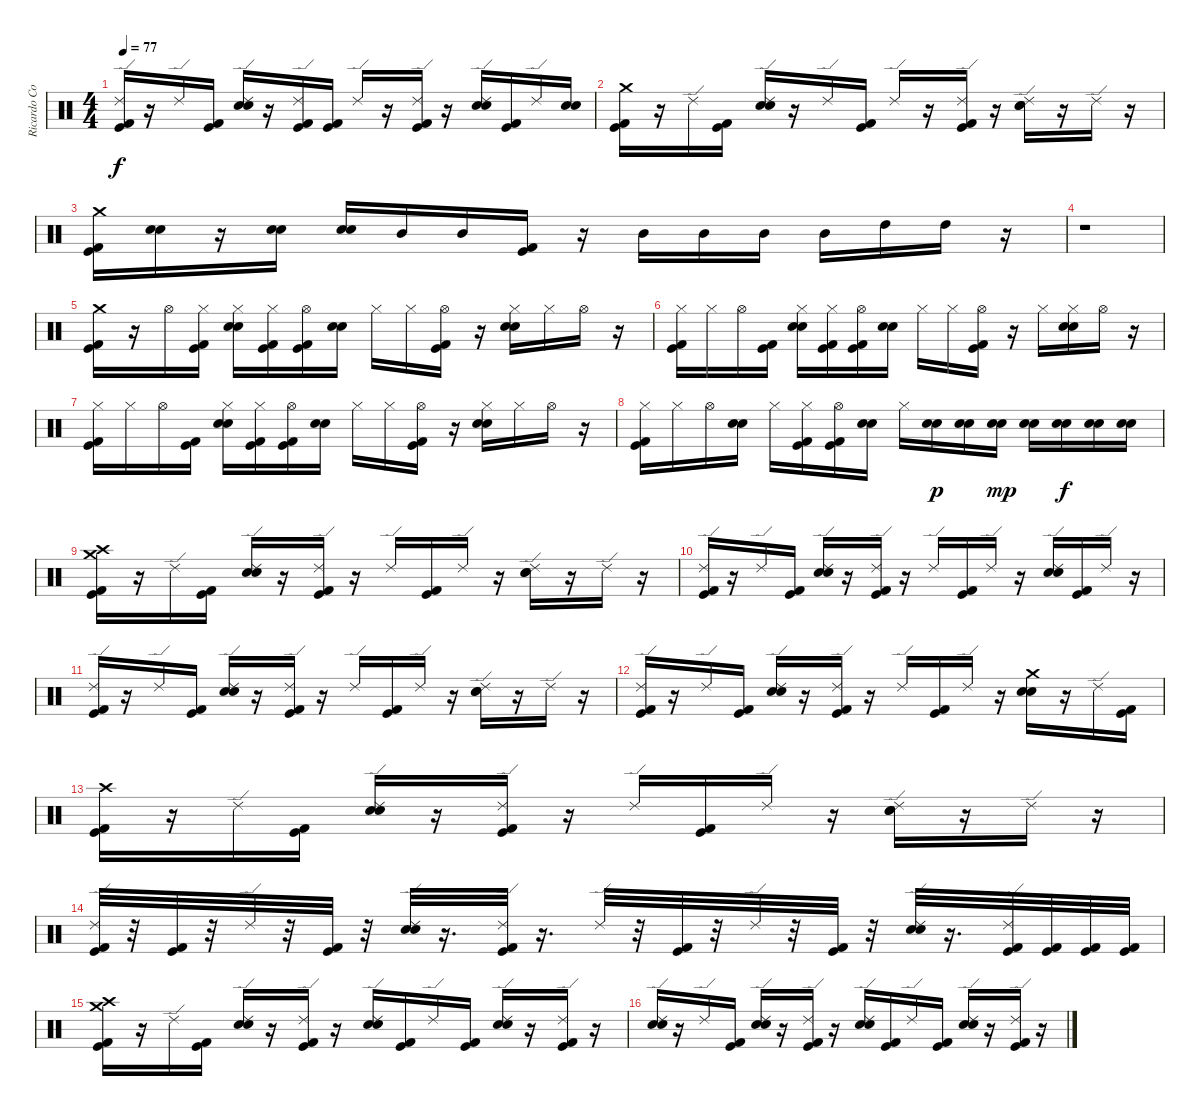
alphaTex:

\track ("Ricardo Confessori" "Ricardo Co") {instrument percussion}
\staff {score}
\articulation defaults
\ts (4 4)
\tempo 77
\clef neutral
\ks c
("Ride (edge) 2" "Kick (hit) 2" "Kick (hit)").16{dy f} r.16 "Ride (edge) 2".16 ("Kick (hit) 2" "Kick (hit)").16 ("Electric Snare (hit)" "Snare (hit) 2" "Ride (edge) 2").16 r.16 ("Ride (edge) 2" "Kick (hit) 2" "Kick (hit)").16 ("Kick (hit) 2" "Kick (hit)").16 "Ride (edge) 2".16 r.16 ("Kick (hit) 2" "Ride (edge) 2" "Kick (hit)").16 r.16 ("Electric Snare (hit)" "Snare (hit) 2" "Ride (edge) 2").16 ("Kick (hit) 2" "Kick (hit)").16 "Ride (edge) 2".16 ("Electric Snare (hit)" "Snare (hit) 2").16 |
("Crash medium (hit)" "Kick (hit) 2" "Kick (hit)").16 r.16 "Ride (edge) 2".16 ("Kick (hit) 2" "Kick (hit)").16 ("Electric Snare (hit)" "Snare (hit) 2" "Ride (edge) 2").16 r.16 "Ride (edge) 2".16 ("Kick (hit) 2" "Kick (hit)").16 "Ride (edge) 2".16 r.16 ("Ride (edge) 2" "Kick (hit) 2" "Kick (hit)").16 r.16 ("Electric Snare (hit)" "Snare (hit) 2" "Ride (edge) 2").16 r.16 "Ride (edge) 2".16 r.16 |
("Crash medium (hit)" "Kick (hit) 2" "Kick (hit)").16 ("Snare (hit) 2" "Electric Snare (hit)").16 r.16 ("Electric Snare (hit)" "Snare (hit) 2").16 ("Snare (hit) 2" "Electric Snare (hit)").16 "Mid Tom (hit)".16 "Mid Tom (hit)".16 ("Kick (hit) 2" "Kick (hit)").16 r.16 "Mid Tom (hit)".16 "Mid Tom (hit)".16 "Mid Tom (hit)".16 "Mid Tom (hit)".16 "High Tom (hit)".16 "High Tom (hit)".16 r.16 |
r.1 |
("Crash medium (hit)" "Kick (hit) 2" "Kick (hit)").16 r.16 "Hi-Hat (open)".16 ("Hi-Hat (closed)" "Kick (hit) 2" "Kick (hit)").16 ("Hi-Hat (closed)" "Electric Snare (hit)" "Snare (hit) 2").16 ("Hi-Hat (closed)" "Kick (hit) 2" "Kick (hit)").16 ("Hi-Hat (open)" "Kick (hit) 2" "Kick (hit)").16 ("Electric Snare (hit)" "Snare (hit) 2").16 "Hi-Hat (closed)".16 "Hi-Hat (closed)".16 ("Kick (hit) 2" "Kick (hit)" "Hi-Hat (open)").16 r.16 ("Electric Snare (hit)" "Snare (hit) 2" "Hi-Hat (closed)").16 "Hi-Hat (closed)".16 "Hi-Hat (open)".16 r.16 |
("Hi-Hat (closed)" "Kick (hit) 2" "Kick (hit)").16 "Hi-Hat (closed)".16 "Hi-Hat (open)".16 ("Kick (hit) 2" "Kick (hit)").16 ("Electric Snare (hit)" "Snare (hit) 2" "Hi-Hat (closed)").16 ("Kick (hit) 2" "Kick (hit)" "Hi-Hat (closed)").16 ("Kick (hit) 2" "Kick (hit)" "Hi-Hat (open)").16 ("Electric Snare (hit)" "Snare (hit) 2").16 "Hi-Hat (closed)".16 "Hi-Hat (closed)".16 ("Kick (hit) 2" "Kick (hit)" "Hi-Hat (open)").16 r.16 "Hi-Hat (closed)".16 ("Electric Snare (hit)" "Snare (hit) 2" "Hi-Hat (closed)").16 "Hi-Hat (open)".16 r.16 |
("Hi-Hat (closed)" "Kick (hit) 2" "Kick (hit)").16 "Hi-Hat (closed)".16 "Hi-Hat (open)".16 ("Kick (hit) 2" "Kick (hit)").16 ("Electric Snare (hit)" "Snare (hit) 2" "Hi-Hat (closed)").16 ("Kick (hit) 2" "Kick (hit)" "Hi-Hat (closed)").16 ("Kick (hit) 2" "Kick (hit)" "Hi-Hat (open)").16 ("Electric Snare (hit)" "Snare (hit) 2").16 "Hi-Hat (closed)".16 "Hi-Hat (closed)".16 ("Kick (hit) 2" "Kick (hit)" "Hi-Hat (open)").16 r.16 ("Electric Snare (hit)" "Snare (hit) 2" "Hi-Hat (closed)").16 "Hi-Hat (closed)".16 "Hi-Hat (open)".16 r.16 |
("Kick (hit) 2" "Kick (hit)" "Hi-Hat (closed)").16 "Hi-Hat (closed)".16 "Hi-Hat (open)".16 ("Electric Snare (hit)" "Snare (hit) 2").16 "Hi-Hat (closed)".16 ("Kick (hit) 2" "Kick (hit)" "Hi-Hat (closed)").16 ("Kick (hit) 2" "Kick (hit)" "Hi-Hat (open)").16 ("Electric Snare (hit)" "Snare (hit) 2").16 "Hi-Hat (closed)".16 ("Electric Snare (hit)" "Snare (hit) 2").16{dy p} ("Electric Snare (hit)" "Snare (hit) 2").16 ("Electric Snare (hit)" "Snare (hit) 2").16{dy mp} ("Electric Snare (hit)" "Snare (hit) 2").16 ("Electric Snare (hit)" "Snare (hit) 2").16{dy f} ("Electric Snare (hit)" "Snare (hit) 2").16 ("Snare (hit) 2" "Electric Snare (hit)").16 |
("Crash high (hit)" "Crash medium (hit)" "Kick (hit) 2" "Kick (hit)").16 r.16 "Ride (edge) 2".16 ("Kick (hit) 2" "Kick (hit)").16 ("Electric Snare (hit)" "Snare (hit) 2" "Ride (edge) 2").16 r.16 ("Ride (edge) 2" "Kick (hit) 2" "Kick (hit)").16 r.16 "Ride (edge) 2".16 ("Kick (hit) 2" "Kick (hit)").16 "Ride (edge) 2".16 r.16 ("Electric Snare (hit)" "Snare (hit) 2" "Ride (edge) 2").16 r.16 "Ride (edge) 2".16 r.16 |
("Ride (edge) 2" "Kick (hit) 2" "Kick (hit)").16 r.16 "Ride (edge) 2".16 ("Kick (hit) 2" "Kick (hit)").16 ("Electric Snare (hit)" "Snare (hit) 2" "Ride (edge) 2").16 r.16 ("Ride (edge) 2" "Kick (hit)" "Kick (hit) 2").16 r.16 "Ride (edge) 2".16 ("Kick (hit) 2" "Kick (hit)").16 "Ride (edge) 2".16 r.16 ("Electric Snare (hit)" "Snare (hit) 2" "Ride (edge) 2").16 ("Kick (hit)" "Kick (hit) 2").16 "Ride (edge) 2".16 r.16 |
("Ride (edge) 2" "Kick (hit) 2" "Kick (hit)").16 r.16 "Ride (edge) 2".16 ("Kick (hit) 2" "Kick (hit)").16 ("Ride (edge) 2" "Electric Snare (hit)" "Snare (hit) 2").16 r.16 ("Ride (edge) 2" "Kick (hit) 2" "Kick (hit)").16 r.16 "Ride (edge) 2".16 ("Kick (hit) 2" "Kick (hit)").16 "Ride (edge) 2".16 r.16 ("Electric Snare (hit)" "Snare (hit) 2" "Ride (edge) 2").16 r.16 "Ride (edge) 2".16 r.16 |
("Ride (edge) 2" "Kick (hit) 2" "Kick (hit)").16 r.16 "Ride (edge) 2".16 ("Kick (hit) 2" "Kick (hit)").16 ("Ride (edge) 2" "Electric Snare (hit)" "Snare (hit) 2").16 r.16 ("Ride (edge) 2" "Kick (hit) 2" "Kick (hit)").16 r.16 "Ride (edge) 2".16 ("Kick (hit) 2" "Kick (hit)").16 "Ride (edge) 2".16 r.16 ("Crash medium (hit)" "Electric Snare (hit)" "Snare (hit) 2").16 r.16 "Ride (edge) 2".16 ("Kick (hit) 2" "Kick (hit)").16 |
("Crash high (hit)" "Kick (hit) 2" "Kick (hit)").16 r.16 "Ride (edge) 2".16 ("Kick (hit) 2" "Kick (hit)").16 ("Ride (edge) 2" "Electric Snare (hit)" "Snare (hit) 2").16 r.16 ("Ride (edge) 2" "Kick (hit) 2" "Kick (hit)").16 r.16 "Ride (edge) 2".16 ("Kick (hit) 2" "Kick (hit)").16 "Ride (edge) 2".16 r.16 ("Ride (edge) 2" "Electric Snare (hit)" "Snare (hit) 2").16 r.16 "Ride (edge) 2".16 r.16 |
("Ride (edge) 2" "Kick (hit) 2" "Kick (hit)").32 r.32 ("Kick (hit) 2" "Kick (hit)").32 r.32 "Ride (edge) 2".32 r.32 ("Kick (hit) 2" "Kick (hit)").32 r.32 ("Ride (edge) 2" "Electric Snare (hit)" "Snare (hit) 2").32 r.16{d} ("Ride (edge) 2" "Kick (hit) 2" "Kick (hit)").32 r.16{d} "Ride (edge) 2".32 r.32 ("Kick (hit) 2" "Kick (hit)").32 r.32 "Ride (edge) 2".32 r.32 ("Kick (hit) 2" "Kick (hit)").32 r.32 ("Ride (edge) 2" "Electric Snare (hit)" "Snare (hit) 2").32 r.16{d} ("Ride (edge) 2" "Kick (hit) 2" "Kick (hit)").32 ("Kick (hit) 2" "Kick (hit)").32 ("Kick (hit) 2" "Kick (hit)").32 ("Kick (hit) 2" "Kick (hit)").32 |
("Crash high (hit)" "Crash medium (hit)" "Kick (hit) 2" "Kick (hit)").16 r.16 "Ride (edge) 2".16 ("Kick (hit) 2" "Kick (hit)").16 ("Electric Snare (hit)" "Snare (hit) 2" "Ride (edge) 2").16 r.16 ("Ride (edge) 2" "Kick (hit) 2" "Kick (hit)").16 r.16 ("Electric Snare (hit)" "Snare (hit) 2" "Ride (edge) 2").16 ("Kick (hit) 2" "Kick (hit)").16 "Ride (edge) 2".16 ("Kick (hit) 2" "Kick (hit)").16 ("Electric Snare (hit)" "Snare (hit) 2" "Ride (edge) 2").16 r.16 ("Ride (edge) 2" "Kick (hit) 2" "Kick (hit)").16 r.16 |
("Ride (edge) 2" "Electric Snare (hit)" "Snare (hit) 2").16 r.16 "Ride (edge) 2".16 ("Kick (hit) 2" "Kick (hit)").16 ("Ride (edge) 2" "Electric Snare (hit)" "Snare (hit) 2").16 r.16 ("Ride (edge) 2" "Kick (hit) 2" "Kick (hit)").16 r.16 ("Ride (edge) 2" "Snare (hit) 2" "Electric Snare (hit)").16 ("Kick (hit)" "Kick (hit) 2").16 "Ride (edge) 2".16 ("Kick (hit)" "Kick (hit) 2").16 ("Ride (edge) 2" "Electric Snare (hit)" "Snare (hit) 2").16 r.16 ("Ride (edge) 2" "Kick (hit) 2" "Kick (hit)").16 r.16
